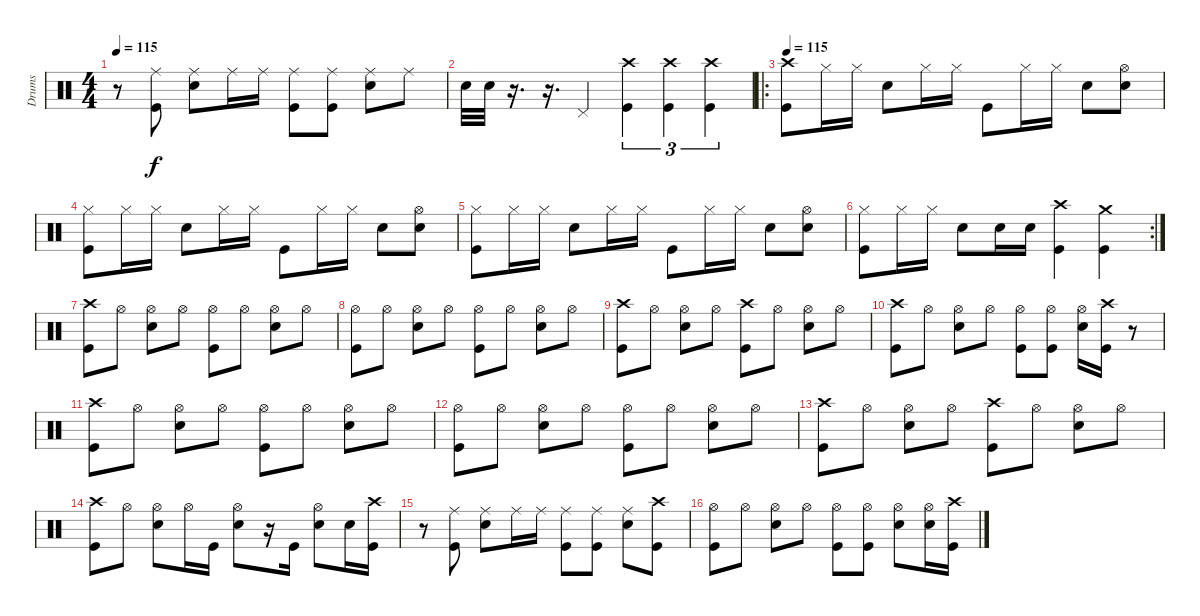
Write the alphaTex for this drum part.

\track ("Drums" "Drums") {instrument percussion}
\staff {score}
\articulation defaults
\ts (4 4)
\tempo 115
\clef neutral
\ks c
r.8{dy f} ("Ride (middle)" "Kick (hit)").8 ("Ride (middle)" "Snare (hit) 2").8 "Ride (middle)".16 "Ride (middle)".16 ("Ride (middle)" "Kick (hit)").8 ("Ride (middle)" "Kick (hit)").8 ("Ride (middle)" "Snare (hit) 2").8 "Ride (middle)".8 |
"Snare (hit) 2".32 "Snare (hit) 2".32 r.16{d} r.16{d} "Pedal Hi-Hat (hit)".4 ("Crash high (hit)" "Kick (hit)").4{tu (3 2)} ("Crash high (hit)" "Kick (hit)").4{tu (3 2)} ("Crash high (hit)" "Kick (hit)").4{tu (3 2)} |
\ro
\tempo 115
("Crash high (hit)" "Kick (hit)").8 "Hi-Hat (closed)".16 "Hi-Hat (closed)".16 "Snare (hit) 2".8 "Hi-Hat (closed)".16 "Hi-Hat (closed)".16 "Kick (hit)".8 "Hi-Hat (closed)".16 "Hi-Hat (closed)".16 "Snare (hit) 2".8 ("Hi-Hat (open)" "Snare (hit) 2").8 |
("Hi-Hat (closed)" "Kick (hit)").8 "Hi-Hat (closed)".16 "Hi-Hat (closed)".16 "Snare (hit) 2".8 "Hi-Hat (closed)".16 "Hi-Hat (closed)".16 "Kick (hit)".8 "Hi-Hat (closed)".16 "Hi-Hat (closed)".16 "Snare (hit) 2".8 ("Hi-Hat (open)" "Snare (hit) 2").8 |
("Hi-Hat (closed)" "Kick (hit)").8 "Hi-Hat (closed)".16 "Hi-Hat (closed)".16 "Snare (hit) 2".8 "Hi-Hat (closed)".16 "Hi-Hat (closed)".16 "Kick (hit)".8 "Hi-Hat (closed)".16 "Hi-Hat (closed)".16 "Snare (hit) 2".8 ("Hi-Hat (open)" "Snare (hit) 2").8 |
\rc 2
("Hi-Hat (closed)" "Kick (hit)").8 "Hi-Hat (closed)".16 "Hi-Hat (closed)".16 "Snare (hit) 2".8 "Snare (hit) 2".16 "Snare (hit) 2".16 ("Crash high (hit)" "Kick (hit)").4 ("Crash medium (hit)" "Kick (hit)").4 |
("Crash high (hit)" "Kick (hit)").8 "Hi-Hat (open)".8 ("Hi-Hat (open)" "Snare (hit) 2").8 "Hi-Hat (open)".8 ("Hi-Hat (open)" "Kick (hit)").8 "Hi-Hat (open)".8 ("Hi-Hat (open)" "Snare (hit) 2").8 "Hi-Hat (open)".8 |
("Hi-Hat (open)" "Kick (hit)").8 "Hi-Hat (open)".8 ("Hi-Hat (open)" "Snare (hit) 2").8 "Hi-Hat (open)".8 ("Hi-Hat (open)" "Kick (hit)").8 "Hi-Hat (open)".8 ("Hi-Hat (open)" "Snare (hit) 2").8 "Hi-Hat (open)".8 |
("Crash high (hit)" "Kick (hit)").8 "Hi-Hat (open)".8 ("Hi-Hat (open)" "Snare (hit) 2").8 "Hi-Hat (open)".8 ("Crash high (hit)" "Kick (hit)").8 "Hi-Hat (open)".8 ("Hi-Hat (open)" "Snare (hit) 2").8 "Hi-Hat (open)".8 |
("Crash high (hit)" "Kick (hit)").8 "Hi-Hat (open)".8 ("Hi-Hat (open)" "Snare (hit) 2").8 "Hi-Hat (open)".8 ("Hi-Hat (open)" "Kick (hit)").8 ("Hi-Hat (open)" "Kick (hit)").8 ("Hi-Hat (open)" "Snare (hit) 2").16 ("Crash high (hit)" "Kick (hit)").16 r.8 |
("Crash high (hit)" "Kick (hit)").8 "Hi-Hat (open)".8 ("Hi-Hat (open)" "Snare (hit) 2").8 "Hi-Hat (open)".8 ("Hi-Hat (open)" "Kick (hit)").8 "Hi-Hat (open)".8 ("Hi-Hat (open)" "Snare (hit) 2").8 "Hi-Hat (open)".8 |
("Hi-Hat (open)" "Kick (hit)").8 "Hi-Hat (open)".8 ("Hi-Hat (open)" "Snare (hit) 2").8 "Hi-Hat (open)".8 ("Hi-Hat (open)" "Kick (hit)").8 "Hi-Hat (open)".8 ("Hi-Hat (open)" "Snare (hit) 2").8 "Hi-Hat (open)".8 |
("Crash high (hit)" "Kick (hit)").8 "Hi-Hat (open)".8 ("Hi-Hat (open)" "Snare (hit) 2").8 "Hi-Hat (open)".8 ("Crash high (hit)" "Kick (hit)").8 "Hi-Hat (open)".8 ("Hi-Hat (open)" "Snare (hit) 2").8 "Hi-Hat (open)".8 |
("Crash high (hit)" "Kick (hit)").8 "Hi-Hat (open)".8 ("Hi-Hat (open)" "Snare (hit) 2").8 "Hi-Hat (open)".16 "Kick (hit)".16 ("Hi-Hat (open)" "Snare (hit) 2").8 r.16 "Kick (hit)".16 ("Hi-Hat (open)" "Snare (hit) 2").8 "Snare (hit) 2".16 ("Crash high (hit)" "Kick (hit)").16 |
r.8 ("Ride (middle)" "Kick (hit)").8 ("Ride (middle)" "Snare (hit) 2").8 "Ride (middle)".16 "Ride (middle)".16 ("Ride (middle)" "Kick (hit)").8 ("Ride (middle)" "Kick (hit)").8 ("Ride (middle)" "Snare (hit) 2").8 ("Crash high (hit)" "Kick (hit)").8 |
("Hi-Hat (open)" "Kick (hit)").8 "Hi-Hat (open)".8 ("Hi-Hat (open)" "Snare (hit) 2").8 "Hi-Hat (open)".8 ("Hi-Hat (open)" "Kick (hit)").8 ("Hi-Hat (open)" "Kick (hit)").8 ("Hi-Hat (open)" "Snare (hit) 2").8 ("Hi-Hat (open)" "Snare (hit) 2").16 ("Crash high (hit)" "Kick (hit)").16
